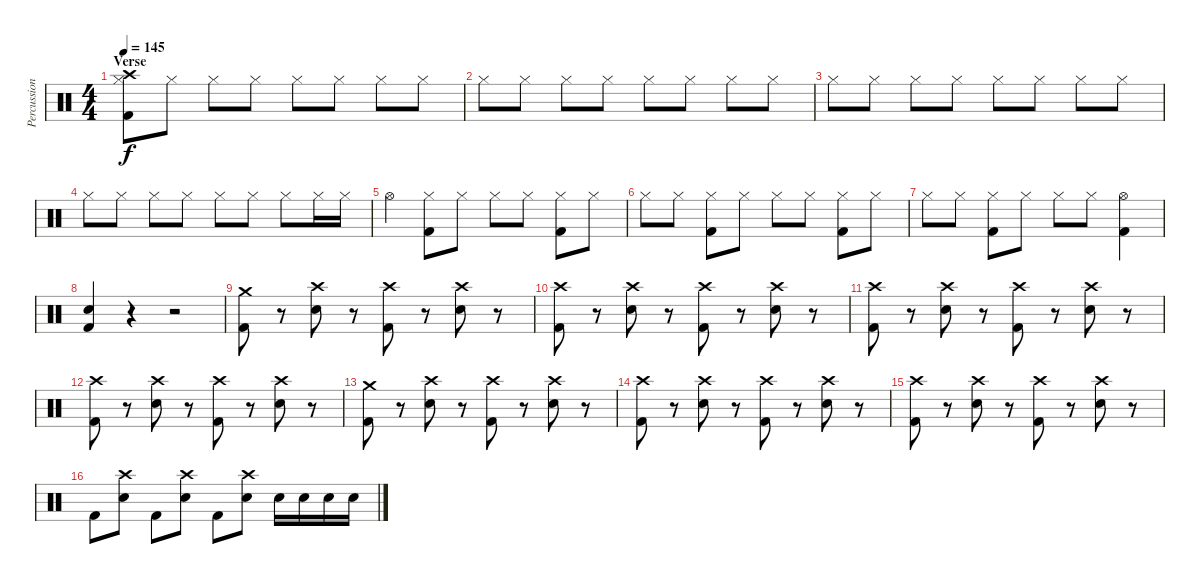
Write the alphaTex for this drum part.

\track ("Percussion" "Percussion") {instrument percussion}
\staff {score}
\articulation defaults
\ts (4 4)
\section ("" "Verse")
\tempo 145
\clef neutral
\ks c
("Crash high (hit)" "Hi-Hat (closed)" "Kick (hit) 2").8{dy f} "Hi-Hat (closed)".8 "Hi-Hat (closed)".8 "Hi-Hat (closed)".8 "Hi-Hat (closed)".8 "Hi-Hat (closed)".8 "Hi-Hat (closed)".8 "Hi-Hat (closed)".8 |
"Hi-Hat (closed)".8 "Hi-Hat (closed)".8 "Hi-Hat (closed)".8 "Hi-Hat (closed)".8 "Hi-Hat (closed)".8 "Hi-Hat (closed)".8 "Hi-Hat (closed)".8 "Hi-Hat (closed)".8 |
"Hi-Hat (closed)".8 "Hi-Hat (closed)".8 "Hi-Hat (closed)".8 "Hi-Hat (closed)".8 "Hi-Hat (closed)".8 "Hi-Hat (closed)".8 "Hi-Hat (closed)".8 "Hi-Hat (closed)".8 |
"Hi-Hat (closed)".8 "Hi-Hat (closed)".8 "Hi-Hat (closed)".8 "Hi-Hat (closed)".8 "Hi-Hat (closed)".8 "Hi-Hat (closed)".8 "Hi-Hat (closed)".8 "Hi-Hat (closed)".16 "Hi-Hat (closed)".16 |
"Hi-Hat (open)".4 ("Hi-Hat (closed)" "Kick (hit) 2").8 "Hi-Hat (closed)".8 "Hi-Hat (closed)".8 "Hi-Hat (closed)".8 ("Hi-Hat (closed)" "Kick (hit) 2").8 "Hi-Hat (closed)".8 |
"Hi-Hat (closed)".8 "Hi-Hat (closed)".8 ("Hi-Hat (closed)" "Kick (hit) 2").8 "Hi-Hat (closed)".8 "Hi-Hat (closed)".8 "Hi-Hat (closed)".8 ("Hi-Hat (closed)" "Kick (hit) 2").8 "Hi-Hat (closed)".8 |
"Hi-Hat (closed)".8 "Hi-Hat (closed)".8 ("Hi-Hat (closed)" "Kick (hit) 2").8 "Hi-Hat (closed)".8 "Hi-Hat (closed)".8 "Hi-Hat (closed)".8 ("Hi-Hat (open)" "Kick (hit) 2").4 |
("Snare (hit) 2" "Kick (hit) 2").4 r.4 r.2 |
("Crash medium (hit)" "Kick (hit) 2").8 r.8 ("Crash high (hit)" "Snare (hit) 2").8 r.8 ("Crash high (hit)" "Kick (hit) 2").8 r.8 ("Crash high (hit)" "Snare (hit) 2").8 r.8 |
("Crash high (hit)" "Kick (hit) 2").8 r.8 ("Crash high (hit)" "Snare (hit) 2").8 r.8 ("Crash high (hit)" "Kick (hit) 2").8 r.8 ("Crash high (hit)" "Snare (hit) 2").8 r.8 |
("Crash high (hit)" "Kick (hit) 2").8 r.8 ("Crash high (hit)" "Snare (hit) 2").8 r.8 ("Crash high (hit)" "Kick (hit) 2").8 r.8 ("Crash high (hit)" "Snare (hit) 2").8 r.8 |
("Crash high (hit)" "Kick (hit) 2").8 r.8 ("Crash high (hit)" "Snare (hit) 2").8 r.8 ("Crash high (hit)" "Kick (hit) 2").8 r.8 ("Crash high (hit)" "Snare (hit) 2").8 r.8 |
("Crash medium (hit)" "Kick (hit) 2").8 r.8 ("Crash high (hit)" "Snare (hit) 2").8 r.8 ("Crash high (hit)" "Kick (hit) 2").8 r.8 ("Crash high (hit)" "Snare (hit) 2").8 r.8 |
("Crash high (hit)" "Kick (hit) 2").8 r.8 ("Crash high (hit)" "Snare (hit) 2").8 r.8 ("Crash high (hit)" "Kick (hit) 2").8 r.8 ("Crash high (hit)" "Snare (hit) 2").8 r.8 |
("Crash high (hit)" "Kick (hit) 2").8 r.8 ("Crash high (hit)" "Snare (hit) 2").8 r.8 ("Crash high (hit)" "Kick (hit) 2").8 r.8 ("Crash high (hit)" "Snare (hit) 2").8 r.8 |
"Kick (hit) 2".8 ("Crash high (hit)" "Snare (hit) 2").8 "Kick (hit) 2".8 ("Crash high (hit)" "Snare (hit) 2").8 "Kick (hit) 2".8 ("Crash high (hit)" "Snare (hit) 2").8 "Snare (hit) 2".16 "Snare (hit) 2".16 "Snare (hit) 2".16 "Snare (hit) 2".16
